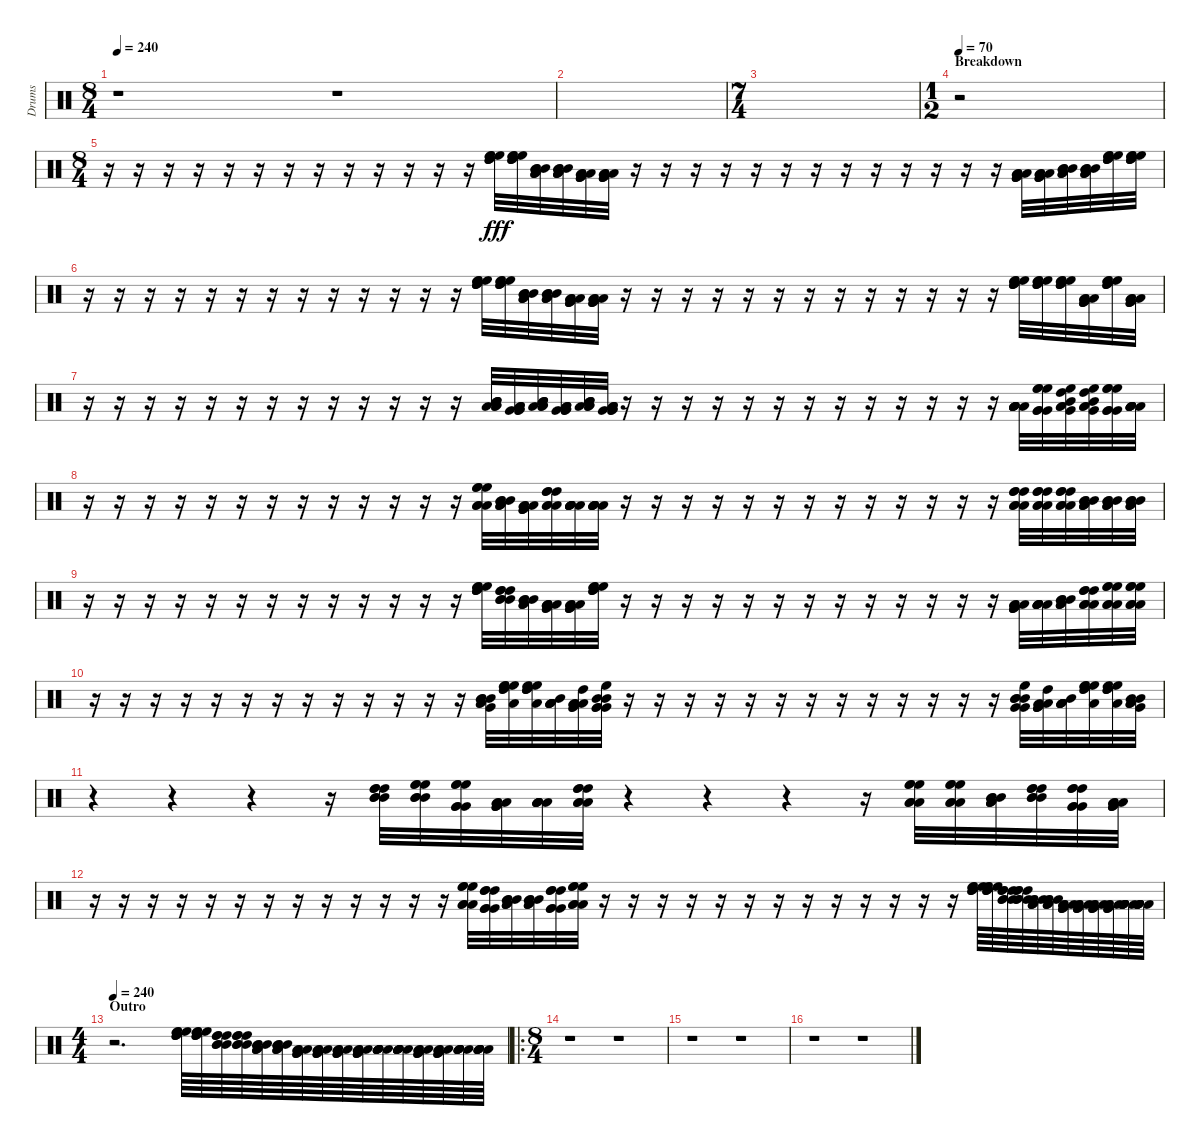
\track ("Drums" "Drums") {instrument percussion}
\staff {score}
\articulation defaults
\ts (8 4)
\tempo 240
\clef neutral
\ks c
r.1{dy f} r.1 |
|
\ts (7 4)
|
\ts (1 2)
\section ("" "Breakdown")
\tempo 70
r.2 |
\ts (8 4)
r.16 r.16 r.16 r.16 r.16 r.16 r.16 r.16 r.16 r.16 r.16 r.16 r.16 ("High Floor Tom (hit)" "High Floor Tom (hit)" "High Floor Tom (hit)" "High Tom (hit)" "High Tom (hit)" "High Tom (hit)").32{dy fff} ("High Floor Tom (hit)" "High Floor Tom (hit)" "High Floor Tom (hit)" "High Tom (hit)" "High Tom (hit)" "High Tom (hit)").32 ("Mid Tom (hit)" "Mid Tom (hit)" "Mid Tom (hit)" "Low Tom (hit)" "Low Tom (hit)" "Low Tom (hit)").32 ("Mid Tom (hit)" "Mid Tom (hit)" "Mid Tom (hit)" "Low Tom (hit)" "Low Tom (hit)" "Low Tom (hit)").32 ("Very Low Tom (hit)" "Very Low Tom (hit)" "Very Low Tom (hit)" "Low Floor Tom (hit)" "Low Floor Tom (hit)" "Low Floor Tom (hit)").32 ("Very Low Tom (hit)" "Very Low Tom (hit)" "Very Low Tom (hit)" "Low Floor Tom (hit)" "Low Floor Tom (hit)" "Low Floor Tom (hit)").32 r.16 r.16 r.16 r.16 r.16 r.16 r.16 r.16 r.16 r.16 r.16 r.16 r.16 ("Very Low Tom (hit)" "Very Low Tom (hit)" "Very Low Tom (hit)" "Low Floor Tom (hit)" "Low Floor Tom (hit)" "Low Floor Tom (hit)").32 ("Very Low Tom (hit)" "Very Low Tom (hit)" "Very Low Tom (hit)" "Low Floor Tom (hit)" "Low Floor Tom (hit)" "Low Floor Tom (hit)").32 ("Mid Tom (hit)" "Mid Tom (hit)" "Mid Tom (hit)" "Low Tom (hit)" "Low Tom (hit)" "Low Tom (hit)").32 ("Mid Tom (hit)" "Mid Tom (hit)" "Mid Tom (hit)" "Low Tom (hit)" "Low Tom (hit)" "Low Tom (hit)").32 ("High Floor Tom (hit)" "High Floor Tom (hit)" "High Floor Tom (hit)" "High Tom (hit)" "High Tom (hit)" "High Tom (hit)").32 ("High Floor Tom (hit)" "High Floor Tom (hit)" "High Floor Tom (hit)" "High Tom (hit)" "High Tom (hit)" "High Tom (hit)").32 |
r.16 r.16 r.16 r.16 r.16 r.16 r.16 r.16 r.16 r.16 r.16 r.16 r.16 ("High Floor Tom (hit)" "High Floor Tom (hit)" "High Floor Tom (hit)" "High Tom (hit)" "High Tom (hit)" "High Tom (hit)").32 ("High Floor Tom (hit)" "High Floor Tom (hit)" "High Floor Tom (hit)" "High Tom (hit)" "High Tom (hit)" "High Tom (hit)").32 ("Mid Tom (hit)" "Mid Tom (hit)" "Mid Tom (hit)" "Low Tom (hit)" "Low Tom (hit)" "Low Tom (hit)").32 ("Mid Tom (hit)" "Mid Tom (hit)" "Mid Tom (hit)" "Low Tom (hit)" "Low Tom (hit)" "Low Tom (hit)").32 ("Very Low Tom (hit)" "Very Low Tom (hit)" "Very Low Tom (hit)" "Low Floor Tom (hit)" "Low Floor Tom (hit)" "Low Floor Tom (hit)").32 ("Very Low Tom (hit)" "Very Low Tom (hit)" "Very Low Tom (hit)" "Low Floor Tom (hit)" "Low Floor Tom (hit)" "Low Floor Tom (hit)").32 r.16 r.16 r.16 r.16 r.16 r.16 r.16 r.16 r.16 r.16 r.16 r.16 r.16 ("High Floor Tom (hit)" "High Floor Tom (hit)" "High Floor Tom (hit)" "High Tom (hit)" "High Tom (hit)" "High Tom (hit)").32 ("High Floor Tom (hit)" "High Floor Tom (hit)" "High Floor Tom (hit)" "High Tom (hit)" "High Tom (hit)" "High Tom (hit)").32 ("High Floor Tom (hit)" "High Floor Tom (hit)" "High Floor Tom (hit)" "High Tom (hit)" "High Tom (hit)" "High Tom (hit)").32 ("Very Low Tom (hit)" "Very Low Tom (hit)" "Very Low Tom (hit)" "Low Floor Tom (hit)" "Low Floor Tom (hit)" "Low Floor Tom (hit)").32 ("High Floor Tom (hit)" "High Floor Tom (hit)" "High Floor Tom (hit)" "High Tom (hit)" "High Tom (hit)" "High Tom (hit)").32 ("Very Low Tom (hit)" "Very Low Tom (hit)" "Very Low Tom (hit)" "Low Floor Tom (hit)" "Low Floor Tom (hit)" "Low Floor Tom (hit)").32 |
r.16 r.16 r.16 r.16 r.16 r.16 r.16 r.16 r.16 r.16 r.16 r.16 r.16 ("Mid Tom (hit)" "Mid Tom (hit)" "Mid Tom (hit)" "Low Tom (hit)" "Low Tom (hit)" "Low Tom (hit)").32 ("Very Low Tom (hit)" "Very Low Tom (hit)" "Very Low Tom (hit)" "Low Floor Tom (hit)" "Low Floor Tom (hit)" "Low Floor Tom (hit)").32 ("Mid Tom (hit)" "Mid Tom (hit)" "Mid Tom (hit)" "Low Tom (hit)" "Low Tom (hit)" "Low Tom (hit)").32 ("Very Low Tom (hit)" "Very Low Tom (hit)" "Very Low Tom (hit)" "Low Floor Tom (hit)" "Low Floor Tom (hit)" "Low Floor Tom (hit)").32 ("Mid Tom (hit)" "Mid Tom (hit)" "Mid Tom (hit)" "Low Tom (hit)" "Low Tom (hit)" "Low Tom (hit)").32 ("Very Low Tom (hit)" "Very Low Tom (hit)" "Very Low Tom (hit)" "Low Floor Tom (hit)" "Low Floor Tom (hit)" "Low Floor Tom (hit)").32 r.16 r.16 r.16 r.16 r.16 r.16 r.16 r.16 r.16 r.16 r.16 r.16 r.16 ("Low Tom (hit)" "Low Tom (hit)" "Low Tom (hit)" "Low Floor Tom (hit)" "Low Floor Tom (hit)" "Low Floor Tom (hit)").32 ("High Floor Tom (hit)" "High Floor Tom (hit)" "High Floor Tom (hit)" "Very Low Tom (hit)" "Very Low Tom (hit)" "Very Low Tom (hit)").32 ("High Floor Tom (hit)" "High Tom (hit)" "Mid Tom (hit)" "Low Tom (hit)" "Very Low Tom (hit)" "Low Floor Tom (hit)").32 ("High Floor Tom (hit)" "High Tom (hit)" "Mid Tom (hit)" "Low Tom (hit)" "Very Low Tom (hit)" "Low Floor Tom (hit)").32 ("High Floor Tom (hit)" "High Floor Tom (hit)" "High Floor Tom (hit)" "Very Low Tom (hit)" "Very Low Tom (hit)" "Very Low Tom (hit)").32 ("Low Tom (hit)" "Low Tom (hit)" "Low Tom (hit)" "Low Floor Tom (hit)" "Low Floor Tom (hit)" "Low Floor Tom (hit)").32 |
r.16 r.16 r.16 r.16 r.16 r.16 r.16 r.16 r.16 r.16 r.16 r.16 r.16 ("High Floor Tom (hit)" "High Floor Tom (hit)" "High Floor Tom (hit)" "Low Tom (hit)" "Low Tom (hit)" "Low Tom (hit)").32 ("Mid Tom (hit)" "Mid Tom (hit)" "Mid Tom (hit)" "Low Floor Tom (hit)" "Low Floor Tom (hit)" "Low Floor Tom (hit)").32 ("Very Low Tom (hit)" "Very Low Tom (hit)" "Very Low Tom (hit)" "Low Tom (hit)" "Low Tom (hit)" "Low Tom (hit)").32 ("High Tom (hit)" "High Tom (hit)" "High Tom (hit)" "Low Floor Tom (hit)" "Low Floor Tom (hit)" "Low Floor Tom (hit)").32 ("Low Floor Tom (hit)" "Low Floor Tom (hit)" "Low Floor Tom (hit)" "Low Tom (hit)" "Low Tom (hit)" "Low Tom (hit)").32 ("Low Tom (hit)" "Low Tom (hit)" "Low Tom (hit)" "Low Floor Tom (hit)" "Low Floor Tom (hit)" "Low Floor Tom (hit)").32 r.16 r.16 r.16 r.16 r.16 r.16 r.16 r.16 r.16 r.16 r.16 r.16 r.16 ("Low Floor Tom (hit)" "Low Floor Tom (hit)" "Low Floor Tom (hit)" "High Tom (hit)" "High Tom (hit)" "High Tom (hit)").32 ("Low Floor Tom (hit)" "Low Floor Tom (hit)" "Low Floor Tom (hit)" "High Tom (hit)" "High Tom (hit)" "High Tom (hit)").32 ("Low Floor Tom (hit)" "Low Floor Tom (hit)" "Low Floor Tom (hit)" "High Tom (hit)" "High Tom (hit)" "High Tom (hit)").32 ("Mid Tom (hit)" "Mid Tom (hit)" "Mid Tom (hit)" "Low Tom (hit)" "Low Tom (hit)" "Low Tom (hit)").32 ("Mid Tom (hit)" "Mid Tom (hit)" "Mid Tom (hit)" "Low Tom (hit)" "Low Tom (hit)" "Low Tom (hit)").32 ("Mid Tom (hit)" "Mid Tom (hit)" "Mid Tom (hit)" "Low Tom (hit)" "Low Tom (hit)" "Low Tom (hit)").32 |
r.16 r.16 r.16 r.16 r.16 r.16 r.16 r.16 r.16 r.16 r.16 r.16 r.16 ("High Floor Tom (hit)" "High Floor Tom (hit)" "High Floor Tom (hit)" "High Tom (hit)" "High Tom (hit)" "High Tom (hit)").32 ("High Tom (hit)" "High Tom (hit)" "High Tom (hit)" "Mid Tom (hit)" "Mid Tom (hit)" "Mid Tom (hit)").32 ("Mid Tom (hit)" "Mid Tom (hit)" "Mid Tom (hit)" "Low Tom (hit)" "Low Tom (hit)" "Low Tom (hit)").32 ("Low Tom (hit)" "Low Tom (hit)" "Low Tom (hit)" "Low Tom (hit)" "Very Low Tom (hit)" "Very Low Tom (hit)").32 ("Very Low Tom (hit)" "Very Low Tom (hit)" "Very Low Tom (hit)" "Low Floor Tom (hit)" "Low Floor Tom (hit)" "Low Floor Tom (hit)").32 ("High Floor Tom (hit)" "High Floor Tom (hit)" "High Floor Tom (hit)" "High Tom (hit)" "High Tom (hit)" "High Tom (hit)").32 r.16 r.16 r.16 r.16 r.16 r.16 r.16 r.16 r.16 r.16 r.16 r.16 r.16 ("Very Low Tom (hit)" "Very Low Tom (hit)" "Very Low Tom (hit)" "Low Floor Tom (hit)" "Low Floor Tom (hit)" "Low Floor Tom (hit)").32 ("Low Tom (hit)" "Low Tom (hit)" "Low Tom (hit)" "Low Floor Tom (hit)" "Low Floor Tom (hit)" "Low Floor Tom (hit)").32 ("Mid Tom (hit)" "Mid Tom (hit)" "Mid Tom (hit)" "Low Floor Tom (hit)" "Low Floor Tom (hit)" "Low Floor Tom (hit)").32 ("High Tom (hit)" "High Tom (hit)" "High Tom (hit)" "Low Floor Tom (hit)" "Low Floor Tom (hit)" "Low Floor Tom (hit)").32 ("High Floor Tom (hit)" "High Floor Tom (hit)" "High Floor Tom (hit)" "Low Floor Tom (hit)" "Low Floor Tom (hit)" "Low Floor Tom (hit)").32 ("High Floor Tom (hit)" "High Floor Tom (hit)" "High Floor Tom (hit)" "Low Floor Tom (hit)" "Low Floor Tom (hit)" "Low Floor Tom (hit)").32 |
r.16 r.16 r.16 r.16 r.16 r.16 r.16 r.16 r.16 r.16 r.16 r.16 r.16 ("Low Tom (hit)" "Low Tom (hit)" "Very Low Tom (hit)" "Mid Tom (hit)" "Mid Tom (hit)" "Mid Tom (hit)").32 ("High Tom (hit)" "High Tom (hit)" "Low Tom (hit)" "High Floor Tom (hit)" "High Floor Tom (hit)" "High Floor Tom (hit)").32 ("High Floor Tom (hit)" "High Floor Tom (hit)" "Low Floor Tom (hit)" "High Tom (hit)" "High Tom (hit)" "High Tom (hit)").32 ("Low Tom (hit)" "Low Tom (hit)" "Mid Tom (hit)" "Low Floor Tom (hit)" "Low Floor Tom (hit)" "Low Floor Tom (hit)").32 ("Very Low Tom (hit)" "Very Low Tom (hit)" "High Tom (hit)" "Low Tom (hit)" "Low Tom (hit)" "Low Tom (hit)").32 ("Mid Tom (hit)" "Mid Tom (hit)" "High Floor Tom (hit)" "Very Low Tom (hit)" "Very Low Tom (hit)" "Very Low Tom (hit)").32 r.16 r.16 r.16 r.16 r.16 r.16 r.16 r.16 r.16 r.16 r.16 r.16 r.16 ("Very Low Tom (hit)" "Very Low Tom (hit)" "High Floor Tom (hit)" "Mid Tom (hit)" "Mid Tom (hit)" "Mid Tom (hit)").32 ("Low Tom (hit)" "Low Tom (hit)" "High Tom (hit)" "Very Low Tom (hit)" "Very Low Tom (hit)" "Very Low Tom (hit)").32 ("Low Floor Tom (hit)" "Low Floor Tom (hit)" "Mid Tom (hit)" "Low Tom (hit)" "Low Tom (hit)" "Low Tom (hit)").32 ("High Tom (hit)" "High Tom (hit)" "Low Floor Tom (hit)" "High Floor Tom (hit)" "High Floor Tom (hit)" "High Floor Tom (hit)").32 ("High Floor Tom (hit)" "High Floor Tom (hit)" "Low Tom (hit)" "High Tom (hit)" "High Tom (hit)" "High Tom (hit)").32 ("Mid Tom (hit)" "Mid Tom (hit)" "Very Low Tom (hit)" "Low Tom (hit)" "Low Tom (hit)" "Low Tom (hit)").32 |
r.4 r.4 r.4 r.16 ("High Tom (hit)" "High Tom (hit)" "High Tom (hit)" "Mid Tom (hit)" "Mid Tom (hit)" "Mid Tom (hit)").32 ("Mid Tom (hit)" "Mid Tom (hit)" "Mid Tom (hit)" "High Floor Tom (hit)" "High Floor Tom (hit)" "High Floor Tom (hit)").32 ("High Floor Tom (hit)" "High Floor Tom (hit)" "High Floor Tom (hit)" "Very Low Tom (hit)" "Very Low Tom (hit)" "Very Low Tom (hit)").32 ("Very Low Tom (hit)" "Very Low Tom (hit)" "Very Low Tom (hit)" "Low Floor Tom (hit)" "Low Floor Tom (hit)" "Low Floor Tom (hit)").32 ("Low Floor Tom (hit)" "Low Floor Tom (hit)" "Low Floor Tom (hit)" "Low Tom (hit)" "Low Tom (hit)" "Low Tom (hit)").32 ("Low Tom (hit)" "Low Tom (hit)" "Low Tom (hit)" "High Tom (hit)" "High Tom (hit)" "High Tom (hit)").32 r.4 r.4 r.4 r.16 ("Low Tom (hit)" "Low Tom (hit)" "Low Tom (hit)" "High Floor Tom (hit)" "High Floor Tom (hit)" "High Floor Tom (hit)").32 ("High Floor Tom (hit)" "High Floor Tom (hit)" "High Floor Tom (hit)" "Low Floor Tom (hit)" "Low Floor Tom (hit)" "Low Floor Tom (hit)").32 ("Low Floor Tom (hit)" "Low Floor Tom (hit)" "Low Floor Tom (hit)" "Mid Tom (hit)" "Mid Tom (hit)" "Mid Tom (hit)").32 ("Mid Tom (hit)" "Mid Tom (hit)" "Mid Tom (hit)" "High Tom (hit)" "High Tom (hit)" "High Tom (hit)").32 ("High Tom (hit)" "High Tom (hit)" "High Tom (hit)" "Very Low Tom (hit)" "Very Low Tom (hit)" "Very Low Tom (hit)").32 ("Very Low Tom (hit)" "Very Low Tom (hit)" "Very Low Tom (hit)" "Low Tom (hit)" "Low Tom (hit)" "Low Tom (hit)").32 |
r.16 r.16 r.16 r.16 r.16 r.16 r.16 r.16 r.16 r.16 r.16 r.16 r.16 ("Low Floor Tom (hit)" "Low Floor Tom (hit)" "Low Floor Tom (hit)" "High Floor Tom (hit)" "High Floor Tom (hit)" "High Floor Tom (hit)").32 ("Very Low Tom (hit)" "Very Low Tom (hit)" "Very Low Tom (hit)" "High Tom (hit)" "High Tom (hit)" "High Tom (hit)").32 ("Low Tom (hit)" "Low Tom (hit)" "Low Tom (hit)" "Mid Tom (hit)" "Mid Tom (hit)" "Mid Tom (hit)").32 ("Mid Tom (hit)" "Mid Tom (hit)" "Mid Tom (hit)" "Low Tom (hit)" "Low Tom (hit)" "Low Tom (hit)").32 ("High Tom (hit)" "High Tom (hit)" "High Tom (hit)" "Very Low Tom (hit)" "Very Low Tom (hit)" "Very Low Tom (hit)").32 ("High Floor Tom (hit)" "High Floor Tom (hit)" "High Floor Tom (hit)" "Low Floor Tom (hit)" "Low Floor Tom (hit)" "Low Floor Tom (hit)").32 r.16 r.16 r.16 r.16 r.16 r.16 r.16 r.16 r.16 r.16 r.16 r.16 r.16 ("High Floor Tom (hit)" "High Floor Tom (hit)" "High Floor Tom (hit)" "High Tom (hit)" "High Tom (hit)" "High Tom (hit)").64 ("High Floor Tom (hit)" "High Floor Tom (hit)" "High Floor Tom (hit)" "High Tom (hit)" "High Tom (hit)" "High Tom (hit)").64 ("High Tom (hit)" "High Tom (hit)" "High Tom (hit)" "Mid Tom (hit)" "Mid Tom (hit)" "Mid Tom (hit)").64 ("High Tom (hit)" "High Tom (hit)" "High Tom (hit)" "Mid Tom (hit)" "Mid Tom (hit)" "Mid Tom (hit)").64 ("Mid Tom (hit)" "Mid Tom (hit)" "Mid Tom (hit)" "Low Tom (hit)" "Low Tom (hit)" "Low Tom (hit)").64 ("Mid Tom (hit)" "Mid Tom (hit)" "Mid Tom (hit)" "Low Tom (hit)" "Low Tom (hit)" "Low Tom (hit)").64 ("Low Tom (hit)" "Low Tom (hit)" "Low Tom (hit)" "Very Low Tom (hit)" "Very Low Tom (hit)" "Very Low Tom (hit)").64 ("Low Tom (hit)" "Low Tom (hit)" "Low Tom (hit)" "Very Low Tom (hit)" "Very Low Tom (hit)" "Very Low Tom (hit)").64 ("Very Low Tom (hit)" "Very Low Tom (hit)" "Very Low Tom (hit)" "Low Floor Tom (hit)" "Low Floor Tom (hit)" "Low Floor Tom (hit)").64 ("Very Low Tom (hit)" "Very Low Tom (hit)" "Very Low Tom (hit)" "Low Floor Tom (hit)" "Low Floor Tom (hit)" "Low Floor Tom (hit)").64 ("Low Floor Tom (hit)" "Low Floor Tom (hit)" "Low Floor Tom (hit)" "Low Floor Tom (hit)" "Low Floor Tom (hit)" "Low Floor Tom (hit)").64 ("Low Floor Tom (hit)" "Low Floor Tom (hit)" "Low Floor Tom (hit)" "Low Floor Tom (hit)" "Low Floor Tom (hit)" "Low Floor Tom (hit)").64 |
\ts (4 4)
\section ("" "Outro")
\tempo 240
r.2{d} ("High Floor Tom (hit)" "High Floor Tom (hit)" "High Floor Tom (hit)" "High Tom (hit)" "High Tom (hit)" "High Tom (hit)").64 ("High Floor Tom (hit)" "High Floor Tom (hit)" "High Floor Tom (hit)" "High Tom (hit)" "High Tom (hit)" "High Tom (hit)").64 ("High Tom (hit)" "High Tom (hit)" "High Tom (hit)" "Mid Tom (hit)" "Mid Tom (hit)" "Mid Tom (hit)").64 ("High Tom (hit)" "High Tom (hit)" "High Tom (hit)" "Mid Tom (hit)" "Mid Tom (hit)" "Mid Tom (hit)").64 ("Mid Tom (hit)" "Mid Tom (hit)" "Mid Tom (hit)" "Low Tom (hit)" "Low Tom (hit)" "Low Tom (hit)").64 ("Mid Tom (hit)" "Mid Tom (hit)" "Mid Tom (hit)" "Low Tom (hit)" "Low Tom (hit)" "Low Tom (hit)").64 ("Low Tom (hit)" "Low Tom (hit)" "Low Tom (hit)" "Very Low Tom (hit)" "Very Low Tom (hit)" "Very Low Tom (hit)").64 ("Low Tom (hit)" "Low Tom (hit)" "Low Tom (hit)" "Very Low Tom (hit)" "Very Low Tom (hit)" "Very Low Tom (hit)").64 ("Very Low Tom (hit)" "Very Low Tom (hit)" "Very Low Tom (hit)" "Low Floor Tom (hit)" "Low Floor Tom (hit)" "Low Floor Tom (hit)").64 ("Very Low Tom (hit)" "Very Low Tom (hit)" "Very Low Tom (hit)" "Low Floor Tom (hit)" "Low Floor Tom (hit)" "Low Floor Tom (hit)").64 ("Low Floor Tom (hit)" "Low Floor Tom (hit)" "Low Floor Tom (hit)" "Low Floor Tom (hit)" "Low Floor Tom (hit)" "Low Floor Tom (hit)").64 ("Low Floor Tom (hit)" "Low Floor Tom (hit)" "Low Floor Tom (hit)" "Low Floor Tom (hit)" "Low Floor Tom (hit)" "Low Floor Tom (hit)").64 ("Very Low Tom (hit)" "Very Low Tom (hit)" "Very Low Tom (hit)" "Low Floor Tom (hit)" "Low Floor Tom (hit)" "Low Floor Tom (hit)").64 ("Very Low Tom (hit)" "Very Low Tom (hit)" "Very Low Tom (hit)" "Low Floor Tom (hit)" "Low Floor Tom (hit)" "Low Floor Tom (hit)").64 ("Low Floor Tom (hit)" "Low Floor Tom (hit)" "Low Floor Tom (hit)" "Low Floor Tom (hit)" "Low Floor Tom (hit)" "Low Floor Tom (hit)").64 ("Low Floor Tom (hit)" "Low Floor Tom (hit)" "Low Floor Tom (hit)" "Low Floor Tom (hit)" "Low Floor Tom (hit)" "Low Floor Tom (hit)").64 |
\ro
\ts (8 4)
r.1 r.1 |
r.1 r.1 |
r.1 r.1
